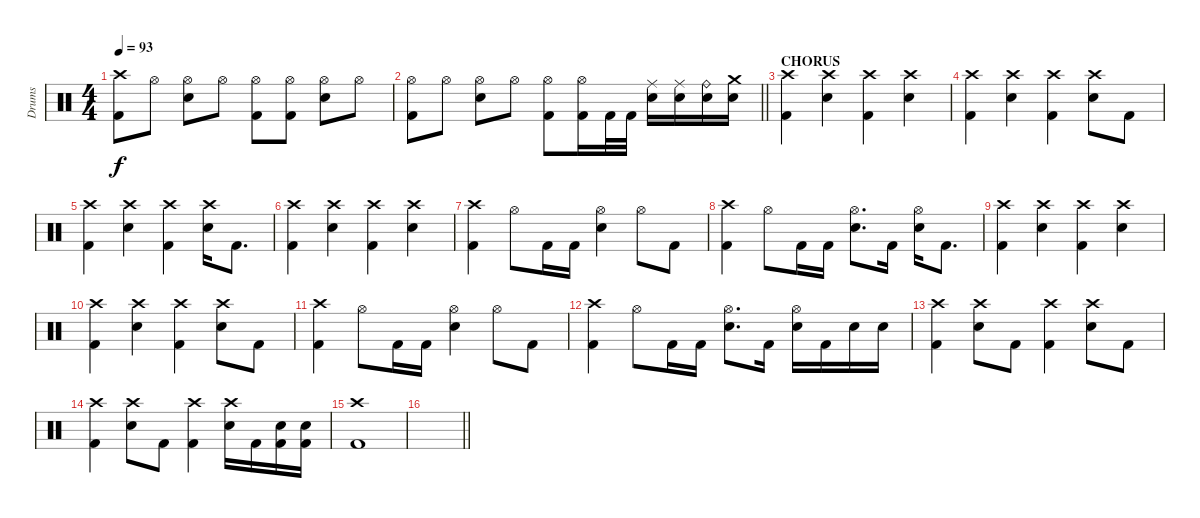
\track ("Drums" "Drums") {instrument percussion}
\staff
\articulation defaults
\ts (4 4)
\tempo 93
\clef neutral
\ks c
("Crash high (hit)" "Kick (hit) 2").8{dy f} "Hi-Hat (open)".8 ("Hi-Hat (open)" "Snare (hit) 2").8 "Hi-Hat (open)".8 ("Hi-Hat (open)" "Kick (hit) 2").8 ("Hi-Hat (open)" "Kick (hit) 2").8 ("Hi-Hat (open)" "Snare (hit) 2").8 "Hi-Hat (open)".8 |
\barLineRight lightlight
("Hi-Hat (open)" "Kick (hit) 2").8 "Hi-Hat (open)".8 ("Hi-Hat (open)" "Snare (hit) 2").8 "Hi-Hat (open)".8 ("Hi-Hat (open)" "Kick (hit) 2").8 ("Hi-Hat (open)" "Kick (hit) 2").16 "Kick (hit) 2".32 "Kick (hit) 2".32 ("Ride (middle)" "Snare (hit) 2").16 ("Ride (middle)" "Snare (hit) 2").16 ("Ride (bell)" "Snare (hit) 2").16 ("Crash medium (hit)" "Snare (hit) 2").16 |
\section ("" "CHORUS")
("Crash high (hit)" "Kick (hit) 2").4 ("Crash high (hit)" "Snare (hit) 2").4 ("Crash high (hit)" "Kick (hit) 2").4 ("Crash high (hit)" "Snare (hit) 2").4 |
("Crash high (hit)" "Kick (hit) 2").4 ("Crash high (hit)" "Snare (hit) 2").4 ("Crash high (hit)" "Kick (hit) 2").4 ("Crash high (hit)" "Snare (hit) 2").8 "Kick (hit) 2".8 |
("Crash high (hit)" "Kick (hit) 2").4 ("Crash high (hit)" "Snare (hit) 2").4 ("Crash high (hit)" "Kick (hit) 2").4 ("Crash high (hit)" "Snare (hit) 2").16 "Kick (hit) 2".8{d} |
("Crash high (hit)" "Kick (hit) 2").4 ("Crash high (hit)" "Snare (hit) 2").4 ("Crash high (hit)" "Kick (hit) 2").4 ("Crash high (hit)" "Snare (hit) 2").4 |
("Crash high (hit)" "Kick (hit) 2").4 "Hi-Hat (open)".8 "Kick (hit) 2".16 "Kick (hit) 2".16 ("Hi-Hat (open)" "Snare (hit) 2").4 "Hi-Hat (open)".8 "Kick (hit) 2".8 |
("Crash high (hit)" "Kick (hit) 2").4 "Hi-Hat (open)".8 "Kick (hit) 2".16 "Kick (hit) 2".16 ("Hi-Hat (open)" "Snare (hit) 2").8{d} "Kick (hit) 2".16 ("Hi-Hat (open)" "Snare (hit) 2").16 "Kick (hit) 2".8{d} |
("Crash high (hit)" "Kick (hit) 2").4 ("Crash high (hit)" "Snare (hit) 2").4 ("Crash high (hit)" "Kick (hit) 2").4 ("Crash high (hit)" "Snare (hit) 2").4 |
("Crash high (hit)" "Kick (hit) 2").4 ("Crash high (hit)" "Snare (hit) 2").4 ("Crash high (hit)" "Kick (hit) 2").4 ("Crash high (hit)" "Snare (hit) 2").8 "Kick (hit) 2".8 |
("Crash high (hit)" "Kick (hit) 2").4 "Hi-Hat (open)".8 "Kick (hit) 2".16 "Kick (hit) 2".16 ("Hi-Hat (open)" "Snare (hit) 2").4 "Hi-Hat (open)".8 "Kick (hit) 2".8 |
("Crash high (hit)" "Kick (hit) 2").4 "Hi-Hat (open)".8 "Kick (hit) 2".16 "Kick (hit) 2".16 ("Hi-Hat (open)" "Snare (hit) 2").8{d} "Kick (hit) 2".16 ("Hi-Hat (open)" "Snare (hit) 2").16 "Kick (hit) 2".16 "Snare (hit) 2".16 "Snare (hit) 2".16 |
("Crash high (hit)" "Kick (hit) 2").4 ("Crash high (hit)" "Snare (hit) 2").8 "Kick (hit) 2".8 ("Crash high (hit)" "Kick (hit) 2").4 ("Crash high (hit)" "Snare (hit) 2").8 "Kick (hit) 2".8 |
("Crash high (hit)" "Kick (hit) 2").4 ("Crash high (hit)" "Snare (hit) 2").8 "Kick (hit) 2".8 ("Crash high (hit)" "Kick (hit) 2").4 ("Crash high (hit)" "Snare (hit) 2").16 "Kick (hit) 2".16 ("Snare (hit) 2" "Kick (hit) 2").16 ("Snare (hit) 2" "Kick (hit) 2").16 |
("Crash high (hit)" "Kick (hit) 2").1 |
\barLineRight lightlight
